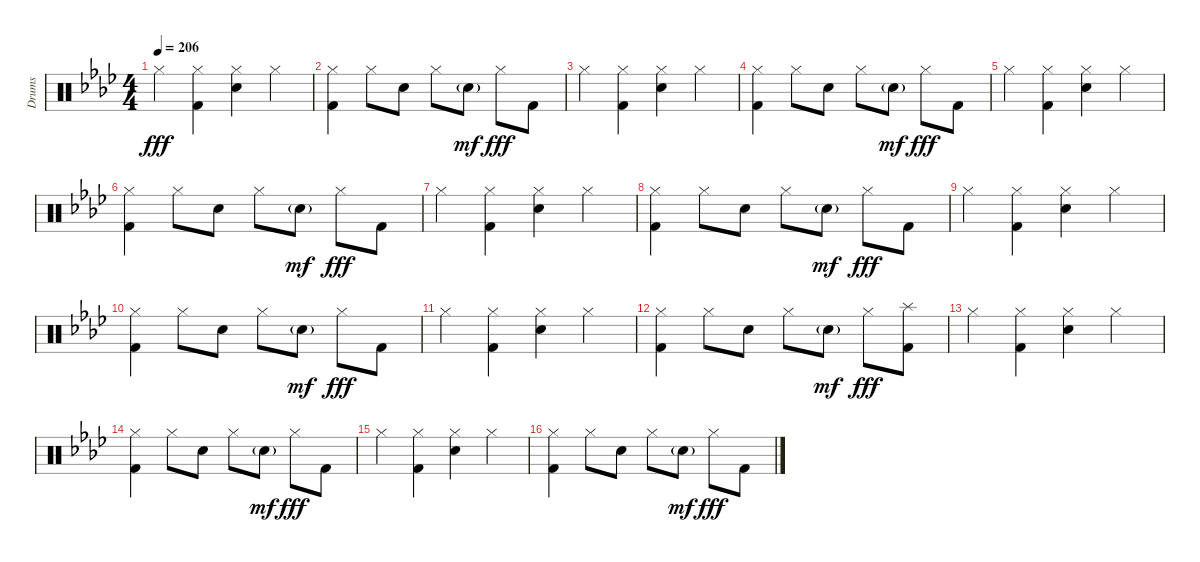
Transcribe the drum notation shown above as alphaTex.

\track ("Drums" "Drums") {instrument percussion}
\staff {score}
\articulation defaults
\ts (4 4)
\tempo 206
\clef neutral
\ks ab "Hi-Hat (closed)".4{dy fff}
("Hi-Hat (closed)" "Kick (hit) 2").4 ("Hi-Hat (closed)" "Electric Snare (hit)").4 "Hi-Hat (closed)".4 |
("Hi-Hat (closed)" "Kick (hit) 2").4 "Hi-Hat (closed)".8 "Electric Snare (hit)".8 "Hi-Hat (closed)".8 "Electric Snare (hit)"{g}.8{dy mf} "Hi-Hat (closed)".8{dy fff} "Kick (hit) 2".8 |
"Hi-Hat (closed)".4 ("Hi-Hat (closed)" "Kick (hit) 2").4 ("Hi-Hat (closed)" "Electric Snare (hit)").4 "Hi-Hat (closed)".4 |
("Hi-Hat (closed)" "Kick (hit) 2").4 "Hi-Hat (closed)".8 "Electric Snare (hit)".8 "Hi-Hat (closed)".8 "Electric Snare (hit)"{g}.8{dy mf} "Hi-Hat (closed)".8{dy fff} "Kick (hit) 2".8 |
"Hi-Hat (closed)".4 ("Hi-Hat (closed)" "Kick (hit) 2").4 ("Hi-Hat (closed)" "Electric Snare (hit)").4 "Hi-Hat (closed)".4 |
("Hi-Hat (closed)" "Kick (hit) 2").4 "Hi-Hat (closed)".8 "Electric Snare (hit)".8 "Hi-Hat (closed)".8 "Electric Snare (hit)"{g}.8{dy mf} "Hi-Hat (closed)".8{dy fff} "Kick (hit) 2".8 |
"Hi-Hat (closed)".4 ("Hi-Hat (closed)" "Kick (hit) 2").4 ("Hi-Hat (closed)" "Electric Snare (hit)").4 "Hi-Hat (closed)".4 |
("Hi-Hat (closed)" "Kick (hit) 2").4 "Hi-Hat (closed)".8 "Electric Snare (hit)".8 "Hi-Hat (closed)".8 "Electric Snare (hit)"{g}.8{dy mf} "Hi-Hat (closed)".8{dy fff} "Kick (hit) 2".8 |
"Hi-Hat (closed)".4 ("Hi-Hat (closed)" "Kick (hit) 2").4 ("Hi-Hat (closed)" "Electric Snare (hit)").4 "Hi-Hat (closed)".4 |
("Hi-Hat (closed)" "Kick (hit) 2").4 "Hi-Hat (closed)".8 "Electric Snare (hit)".8 "Hi-Hat (closed)".8 "Electric Snare (hit)"{g}.8{dy mf} "Hi-Hat (closed)".8{dy fff} "Kick (hit) 2".8 |
"Hi-Hat (closed)".4 ("Hi-Hat (closed)" "Kick (hit) 2").4 ("Hi-Hat (closed)" "Electric Snare (hit)").4 "Hi-Hat (closed)".4 |
("Hi-Hat (closed)" "Kick (hit) 2").4 "Hi-Hat (closed)".8 "Electric Snare (hit)".8 "Hi-Hat (closed)".8 "Electric Snare (hit)"{g}.8{dy mf} "Hi-Hat (closed)".8{dy fff} ("Splash (hit)" "Kick (hit) 2").8 |
"Hi-Hat (closed)".4 ("Hi-Hat (closed)" "Kick (hit) 2").4 ("Hi-Hat (closed)" "Electric Snare (hit)").4 "Hi-Hat (closed)".4 |
("Hi-Hat (closed)" "Kick (hit) 2").4 "Hi-Hat (closed)".8 "Electric Snare (hit)".8 "Hi-Hat (closed)".8 "Electric Snare (hit)"{g}.8{dy mf} "Hi-Hat (closed)".8{dy fff} "Kick (hit) 2".8 |
"Hi-Hat (closed)".4 ("Hi-Hat (closed)" "Kick (hit) 2").4 ("Hi-Hat (closed)" "Electric Snare (hit)").4 "Hi-Hat (closed)".4 |
("Hi-Hat (closed)" "Kick (hit) 2").4 "Hi-Hat (closed)".8 "Electric Snare (hit)".8 "Hi-Hat (closed)".8 "Electric Snare (hit)"{g}.8{dy mf} "Hi-Hat (closed)".8{dy fff} "Kick (hit) 2".8
